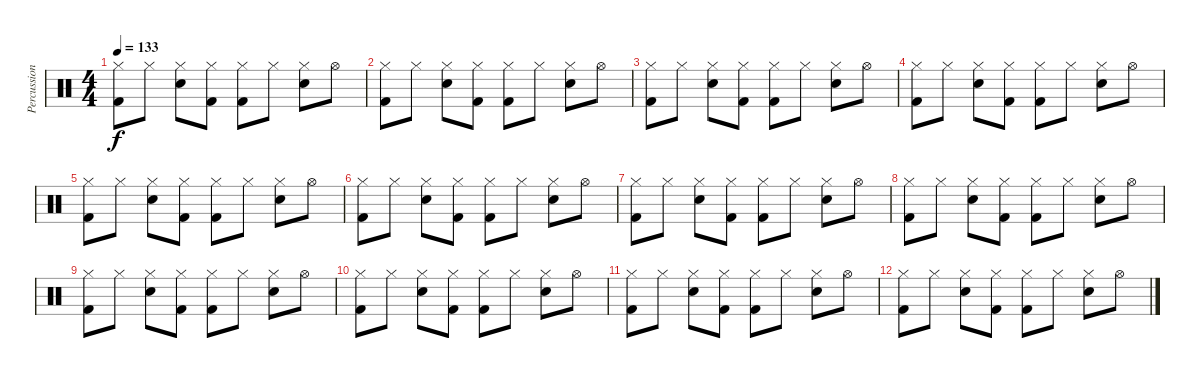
\track ("Percussions" "Percussion") {instrument percussion}
\staff {score}
\articulation defaults
\ts (4 4)
\tempo 133
\clef neutral
\ks c
("Hi-Hat (closed)" "Kick (hit) 2").8{dy f} "Hi-Hat (closed)".8 ("Hi-Hat (closed)" "Electric Snare (hit)").8 ("Hi-Hat (closed)" "Kick (hit) 2").8 ("Hi-Hat (closed)" "Kick (hit) 2").8 "Hi-Hat (closed)".8 ("Hi-Hat (closed)" "Electric Snare (hit)").8 "Hi-Hat (open)".8 |
("Hi-Hat (closed)" "Kick (hit) 2").8 "Hi-Hat (closed)".8 ("Hi-Hat (closed)" "Electric Snare (hit)").8 ("Hi-Hat (closed)" "Kick (hit) 2").8 ("Hi-Hat (closed)" "Kick (hit) 2").8 "Hi-Hat (closed)".8 ("Hi-Hat (closed)" "Electric Snare (hit)").8 "Hi-Hat (open)".8 |
("Hi-Hat (closed)" "Kick (hit) 2").8 "Hi-Hat (closed)".8 ("Hi-Hat (closed)" "Electric Snare (hit)").8 ("Hi-Hat (closed)" "Kick (hit) 2").8 ("Hi-Hat (closed)" "Kick (hit) 2").8 "Hi-Hat (closed)".8 ("Hi-Hat (closed)" "Electric Snare (hit)").8 "Hi-Hat (open)".8 |
("Hi-Hat (closed)" "Kick (hit) 2").8 "Hi-Hat (closed)".8 ("Hi-Hat (closed)" "Electric Snare (hit)").8 ("Hi-Hat (closed)" "Kick (hit) 2").8 ("Hi-Hat (closed)" "Kick (hit) 2").8 "Hi-Hat (closed)".8 ("Hi-Hat (closed)" "Electric Snare (hit)").8 "Hi-Hat (open)".8 |
("Hi-Hat (closed)" "Kick (hit) 2").8 "Hi-Hat (closed)".8 ("Hi-Hat (closed)" "Electric Snare (hit)").8 ("Hi-Hat (closed)" "Kick (hit) 2").8 ("Hi-Hat (closed)" "Kick (hit) 2").8 "Hi-Hat (closed)".8 ("Hi-Hat (closed)" "Electric Snare (hit)").8 "Hi-Hat (open)".8 |
("Hi-Hat (closed)" "Kick (hit) 2").8 "Hi-Hat (closed)".8 ("Hi-Hat (closed)" "Electric Snare (hit)").8 ("Hi-Hat (closed)" "Kick (hit) 2").8 ("Hi-Hat (closed)" "Kick (hit) 2").8 "Hi-Hat (closed)".8 ("Hi-Hat (closed)" "Electric Snare (hit)").8 "Hi-Hat (open)".8 |
("Hi-Hat (closed)" "Kick (hit) 2").8{volume 7} "Hi-Hat (closed)".8 ("Hi-Hat (closed)" "Electric Snare (hit)").8 ("Hi-Hat (closed)" "Kick (hit) 2").8 ("Hi-Hat (closed)" "Kick (hit) 2").8 "Hi-Hat (closed)".8 ("Hi-Hat (closed)" "Electric Snare (hit)").8 "Hi-Hat (open)".8 |
("Hi-Hat (closed)" "Kick (hit) 2").8 "Hi-Hat (closed)".8 ("Hi-Hat (closed)" "Electric Snare (hit)").8 ("Hi-Hat (closed)" "Kick (hit) 2").8 ("Hi-Hat (closed)" "Kick (hit) 2").8 "Hi-Hat (closed)".8 ("Hi-Hat (closed)" "Electric Snare (hit)").8 "Hi-Hat (open)".8 |
("Hi-Hat (closed)" "Kick (hit) 2").8{volume 3} "Hi-Hat (closed)".8 ("Hi-Hat (closed)" "Electric Snare (hit)").8 ("Hi-Hat (closed)" "Kick (hit) 2").8 ("Hi-Hat (closed)" "Kick (hit) 2").8 "Hi-Hat (closed)".8 ("Hi-Hat (closed)" "Electric Snare (hit)").8 "Hi-Hat (open)".8 |
("Hi-Hat (closed)" "Kick (hit) 2").8 "Hi-Hat (closed)".8 ("Hi-Hat (closed)" "Electric Snare (hit)").8 ("Hi-Hat (closed)" "Kick (hit) 2").8 ("Hi-Hat (closed)" "Kick (hit) 2").8 "Hi-Hat (closed)".8 ("Hi-Hat (closed)" "Electric Snare (hit)").8 "Hi-Hat (open)".8 |
("Hi-Hat (closed)" "Kick (hit) 2").8{volume 0} "Hi-Hat (closed)".8 ("Hi-Hat (closed)" "Electric Snare (hit)").8 ("Hi-Hat (closed)" "Kick (hit) 2").8 ("Hi-Hat (closed)" "Kick (hit) 2").8 "Hi-Hat (closed)".8 ("Hi-Hat (closed)" "Electric Snare (hit)").8 "Hi-Hat (open)".8 |
("Hi-Hat (closed)" "Kick (hit) 2").8 "Hi-Hat (closed)".8 ("Hi-Hat (closed)" "Electric Snare (hit)").8 ("Hi-Hat (closed)" "Kick (hit) 2").8 ("Hi-Hat (closed)" "Kick (hit) 2").8 "Hi-Hat (closed)".8 ("Hi-Hat (closed)" "Electric Snare (hit)").8 "Hi-Hat (open)".8
